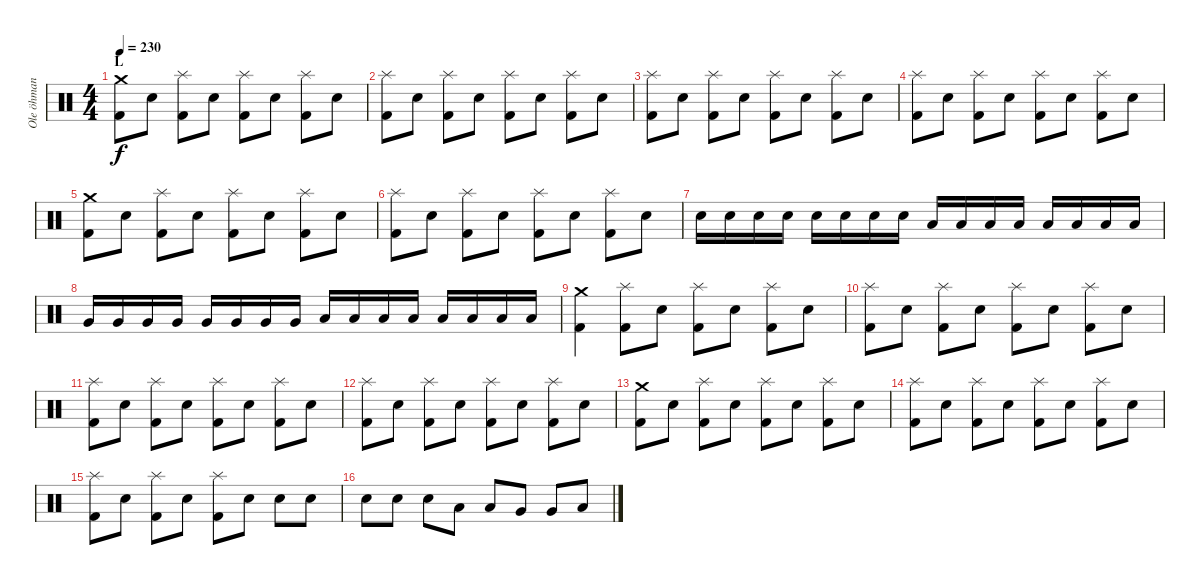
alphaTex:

\track ("Ole öhman" "Ole öhman") {instrument percussion}
\staff {score}
\articulation defaults
\ts (4 4)
\section ("" "L")
\tempo 230
\clef neutral
\ks c
("Crash medium (hit)" "Kick (hit) 2").8{dy f} "Electric Snare (hit)".8 ("Splash (hit)" "Kick (hit) 2").8 "Electric Snare (hit)".8 ("Splash (hit)" "Kick (hit) 2").8 "Electric Snare (hit)".8 ("Splash (hit)" "Kick (hit) 2").8 "Electric Snare (hit)".8 |
("Splash (hit)" "Kick (hit) 2").8 "Electric Snare (hit)".8 ("Splash (hit)" "Kick (hit) 2").8 "Electric Snare (hit)".8 ("Splash (hit)" "Kick (hit) 2").8 "Electric Snare (hit)".8 ("Splash (hit)" "Kick (hit) 2").8 "Electric Snare (hit)".8 |
("Splash (hit)" "Kick (hit) 2").8 "Electric Snare (hit)".8 ("Splash (hit)" "Kick (hit) 2").8 "Electric Snare (hit)".8 ("Splash (hit)" "Kick (hit) 2").8 "Electric Snare (hit)".8 ("Splash (hit)" "Kick (hit) 2").8 "Electric Snare (hit)".8 |
("Splash (hit)" "Kick (hit) 2").8 "Electric Snare (hit)".8 ("Splash (hit)" "Kick (hit) 2").8 "Electric Snare (hit)".8 ("Splash (hit)" "Kick (hit) 2").8 "Electric Snare (hit)".8 ("Splash (hit)" "Kick (hit) 2").8 "Electric Snare (hit)".8 |
("Crash medium (hit)" "Kick (hit) 2").8 "Electric Snare (hit)".8 ("Splash (hit)" "Kick (hit) 2").8 "Electric Snare (hit)".8 ("Splash (hit)" "Kick (hit) 2").8 "Electric Snare (hit)".8 ("Splash (hit)" "Kick (hit) 2").8 "Electric Snare (hit)".8 |
("Splash (hit)" "Kick (hit) 2").8 "Electric Snare (hit)".8 ("Splash (hit)" "Kick (hit) 2").8 "Electric Snare (hit)".8 ("Splash (hit)" "Kick (hit) 2").8 "Electric Snare (hit)".8 ("Splash (hit)" "Kick (hit) 2").8 "Electric Snare (hit)".8 |
"Electric Snare (hit)".16 "Electric Snare (hit)".16 "Electric Snare (hit)".16 "Electric Snare (hit)".16 "Electric Snare (hit)".16 "Electric Snare (hit)".16 "Electric Snare (hit)".16 "Electric Snare (hit)".16 "Low Tom (hit)".16 "Low Tom (hit)".16 "Low Tom (hit)".16 "Low Tom (hit)".16 "Low Tom (hit)".16 "Low Tom (hit)".16 "Low Tom (hit)".16 "Low Tom (hit)".16 |
"Very Low Tom (hit)".16 "Very Low Tom (hit)".16 "Very Low Tom (hit)".16 "Very Low Tom (hit)".16 "Very Low Tom (hit)".16 "Very Low Tom (hit)".16 "Very Low Tom (hit)".16 "Very Low Tom (hit)".16 "Low Floor Tom (hit)".16 "Low Floor Tom (hit)".16 "Low Floor Tom (hit)".16 "Low Floor Tom (hit)".16 "Low Floor Tom (hit)".16 "Low Floor Tom (hit)".16 "Low Floor Tom (hit)".16 "Low Floor Tom (hit)".16 |
("Crash medium (hit)" "Kick (hit) 2").4 ("Splash (hit)" "Kick (hit) 2").8 "Electric Snare (hit)".8 ("Splash (hit)" "Kick (hit) 2").8 "Electric Snare (hit)".8 ("Splash (hit)" "Kick (hit) 2").8 "Electric Snare (hit)".8 |
("Splash (hit)" "Kick (hit) 2").8 "Electric Snare (hit)".8 ("Splash (hit)" "Kick (hit) 2").8 "Electric Snare (hit)".8 ("Splash (hit)" "Kick (hit) 2").8 "Electric Snare (hit)".8 ("Splash (hit)" "Kick (hit) 2").8 "Electric Snare (hit)".8 |
("Splash (hit)" "Kick (hit) 2").8 "Electric Snare (hit)".8 ("Splash (hit)" "Kick (hit) 2").8 "Electric Snare (hit)".8 ("Splash (hit)" "Kick (hit) 2").8 "Electric Snare (hit)".8 ("Splash (hit)" "Kick (hit) 2").8 "Electric Snare (hit)".8 |
("Splash (hit)" "Kick (hit) 2").8 "Electric Snare (hit)".8 ("Splash (hit)" "Kick (hit) 2").8 "Electric Snare (hit)".8 ("Splash (hit)" "Kick (hit) 2").8 "Electric Snare (hit)".8 ("Splash (hit)" "Kick (hit) 2").8 "Electric Snare (hit)".8 |
("Crash medium (hit)" "Kick (hit) 2").8 "Electric Snare (hit)".8 ("Splash (hit)" "Kick (hit) 2").8 "Electric Snare (hit)".8 ("Splash (hit)" "Kick (hit) 2").8 "Electric Snare (hit)".8 ("Splash (hit)" "Kick (hit) 2").8 "Electric Snare (hit)".8 |
("Splash (hit)" "Kick (hit) 2").8 "Electric Snare (hit)".8 ("Splash (hit)" "Kick (hit) 2").8 "Electric Snare (hit)".8 ("Splash (hit)" "Kick (hit) 2").8 "Electric Snare (hit)".8 ("Splash (hit)" "Kick (hit) 2").8 "Electric Snare (hit)".8 |
("Splash (hit)" "Kick (hit) 2").8 "Electric Snare (hit)".8 ("Splash (hit)" "Kick (hit) 2").8 "Electric Snare (hit)".8 ("Splash (hit)" "Kick (hit) 2").8 "Electric Snare (hit)".8 "Electric Snare (hit)".8 "Electric Snare (hit)".8 |
"Electric Snare (hit)".8 "Electric Snare (hit)".8 "Electric Snare (hit)".8 "Low Tom (hit)".8 "Low Tom (hit)".8 "Very Low Tom (hit)".8 "Very Low Tom (hit)".8 "Low Floor Tom (hit)".8
